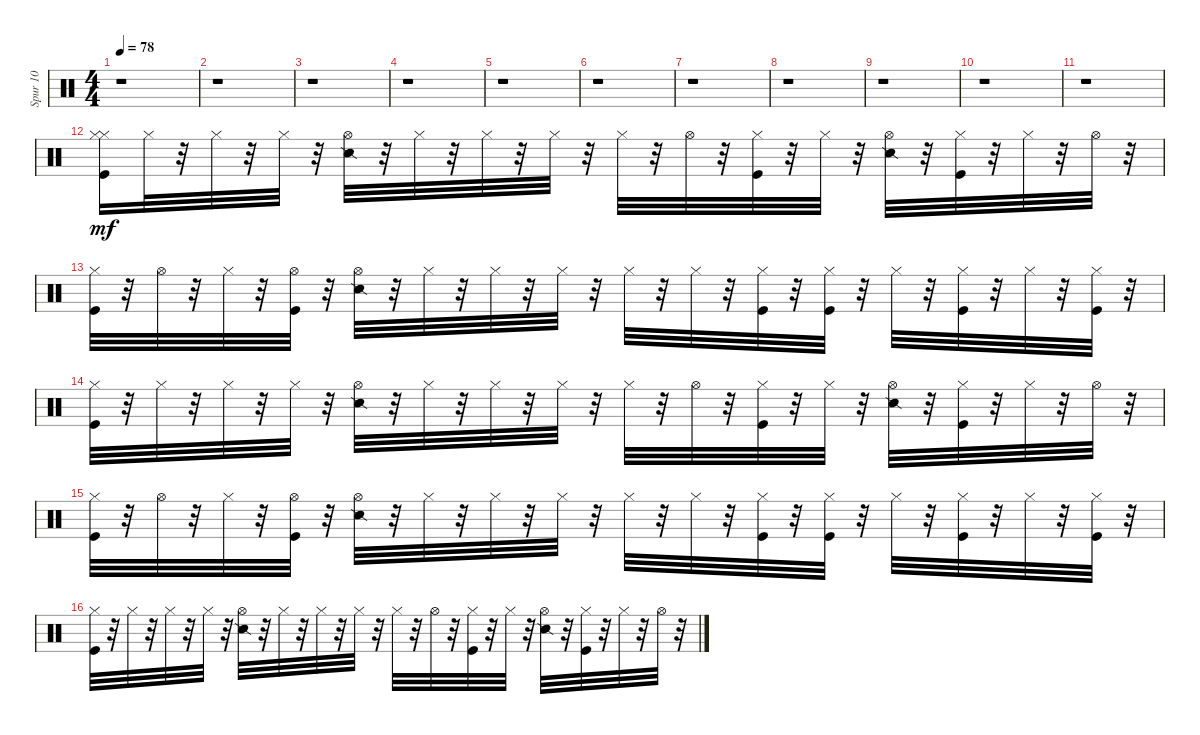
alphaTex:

\track ("Spur 10" "Spur 10") {instrument percussion}
\staff {score}
\articulation defaults
\ts (4 4)
\tempo 78
\clef neutral
\ks c
r.1{dy mf} |
r.1 |
r.1 |
r.1 |
r.1 |
r.1 |
r.1 |
r.1 |
r.1 |
r.1 |
r.1 |
("Hi-Hat (closed)" "Kick (hit)" "Hi-Hat (closed)").16 "Hi-Hat (closed)".32 r.32 "Hi-Hat (closed)".32 r.32 "Hi-Hat (closed)".32 r.32 ("Hi-Hat (open)" "Snare (side stick) 2").32 r.32 "Hi-Hat (closed)".32 r.32 "Hi-Hat (closed)".32 r.32 "Hi-Hat (closed)".32 r.32 "Hi-Hat (closed)".32 r.32 "Hi-Hat (open)".32 r.32 ("Hi-Hat (closed)" "Kick (hit)").32 r.32 "Hi-Hat (closed)".32 r.32 ("Hi-Hat (open)" "Snare (side stick) 2").32 r.32 ("Hi-Hat (closed)" "Kick (hit)").32 r.32 "Hi-Hat (closed)".32 r.32 "Hi-Hat (open)".32 r.32 |
("Hi-Hat (closed)" "Kick (hit)").32 r.32 "Hi-Hat (open)".32 r.32 "Hi-Hat (closed)".32 r.32 ("Hi-Hat (open)" "Kick (hit)").32 r.32 ("Hi-Hat (open)" "Snare (side stick) 2").32 r.32 "Hi-Hat (closed)".32 r.32 "Hi-Hat (closed)".32 r.32 "Hi-Hat (closed)".32 r.32 "Hi-Hat (closed)".32 r.32 "Hi-Hat (closed)".32 r.32 ("Hi-Hat (closed)" "Kick (hit)").32 r.32 ("Hi-Hat (closed)" "Kick (hit)").32 r.32 "Hi-Hat (closed)".32 r.32 ("Hi-Hat (closed)" "Kick (hit)").32 r.32 "Hi-Hat (closed)".32 r.32 ("Hi-Hat (closed)" "Kick (hit)").32 r.32 |
("Hi-Hat (closed)" "Kick (hit)").32 r.32 "Hi-Hat (closed)".32 r.32 "Hi-Hat (closed)".32 r.32 "Hi-Hat (closed)".32 r.32 ("Hi-Hat (open)" "Snare (side stick) 2").32 r.32 "Hi-Hat (closed)".32 r.32 "Hi-Hat (closed)".32 r.32 "Hi-Hat (closed)".32 r.32 "Hi-Hat (closed)".32 r.32 "Hi-Hat (open)".32 r.32 ("Hi-Hat (closed)" "Kick (hit)").32 r.32 "Hi-Hat (closed)".32 r.32 ("Hi-Hat (open)" "Snare (side stick) 2").32 r.32 ("Hi-Hat (closed)" "Kick (hit)").32 r.32 "Hi-Hat (closed)".32 r.32 "Hi-Hat (open)".32 r.32 |
("Hi-Hat (closed)" "Kick (hit)").32 r.32 "Hi-Hat (open)".32 r.32 "Hi-Hat (closed)".32 r.32 ("Hi-Hat (open)" "Kick (hit)").32 r.32 ("Hi-Hat (open)" "Snare (side stick) 2").32 r.32 "Hi-Hat (closed)".32 r.32 "Hi-Hat (closed)".32 r.32 "Hi-Hat (closed)".32 r.32 "Hi-Hat (closed)".32 r.32 "Hi-Hat (closed)".32 r.32 ("Kick (hit)" "Hi-Hat (closed)").32 r.32 ("Hi-Hat (closed)" "Kick (hit)").32 r.32 "Hi-Hat (closed)".32 r.32 ("Hi-Hat (closed)" "Kick (hit)").32 r.32 "Hi-Hat (closed)".32 r.32 ("Hi-Hat (closed)" "Kick (hit)").32 r.32 |
("Hi-Hat (closed)" "Kick (hit)").32 r.32 "Hi-Hat (closed)".32 r.32 "Hi-Hat (closed)".32 r.32 "Hi-Hat (closed)".32 r.32 ("Hi-Hat (open)" "Snare (side stick) 2").32 r.32 "Hi-Hat (closed)".32 r.32 "Hi-Hat (closed)".32 r.32 "Hi-Hat (closed)".32 r.32 "Hi-Hat (closed)".32 r.32 "Hi-Hat (open)".32 r.32 ("Hi-Hat (closed)" "Kick (hit)").32 r.32 "Hi-Hat (closed)".32 r.32 ("Hi-Hat (open)" "Snare (side stick) 2").32 r.32 ("Hi-Hat (closed)" "Kick (hit)").32 r.32 "Hi-Hat (closed)".32 r.32 "Hi-Hat (open)".32 r.32
